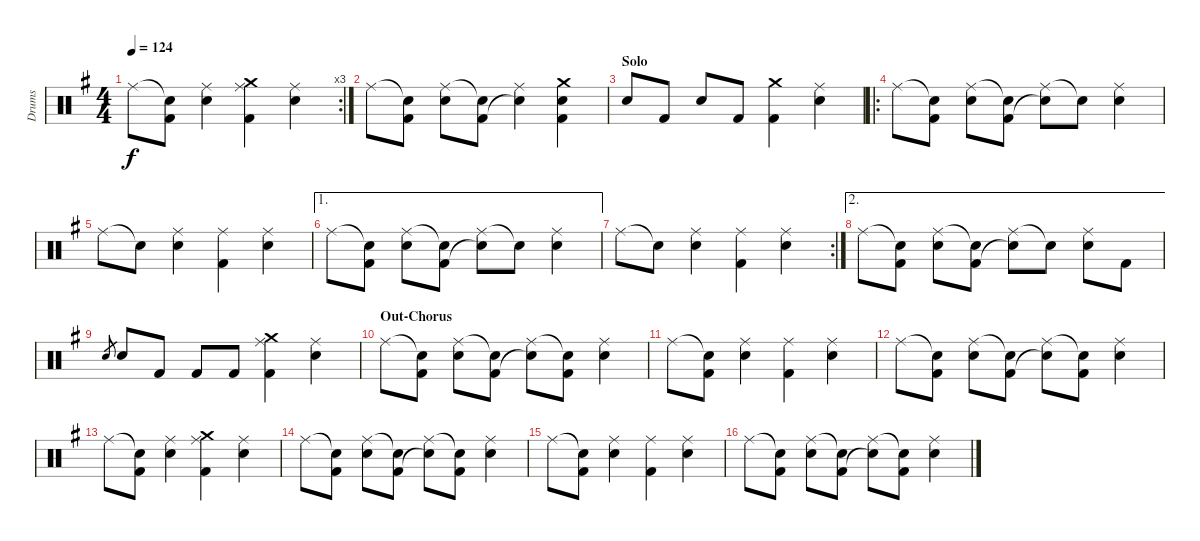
\track ("Drums" "Drums") {instrument percussion}
\staff {score}
\articulation defaults
\rc 3
\ts (4 4)
\tempo 124
\clef neutral
\ks g "Ride (middle)".8{dy f}
("Snare (hit)"{t} "Kick (hit) 2").8 ("Ride (middle)" "Snare (hit) 2").4 ("Ride (middle)" "Crash medium (hit)" "Kick (hit) 2").4 ("Ride (middle)" "Snare (hit) 2").4 |
"Ride (middle)".8 ("Snare (hit)"{t} "Kick (hit) 2").8 ("Ride (middle)" "Snare (hit) 2").8 ("Snare (hit)"{t} "Kick (hit) 2").8 ("Ride (middle)" "Snare (hit)"{t}).4 ("Crash medium (hit)" "Kick (hit) 2" "Snare (hit) 2").4 |
\section ("" "Solo")
"Snare (hit) 2".8 "Kick (hit) 2".8 "Snare (hit) 2".8 "Kick (hit) 2".8 ("Crash medium (hit)" "Kick (hit) 2").4 ("Ride (middle)" "Snare (hit) 2").4 |
\ro "Ride (middle)".8
("Snare (hit)"{t} "Kick (hit) 2").8 ("Ride (middle)" "Snare (hit) 2").8 ("Snare (hit)"{t} "Kick (hit) 2").8 ("Ride (middle)" "Snare (hit)"{t}).8 "Snare (hit)"{t}.8 ("Ride (middle)" "Snare (hit) 2").4 |
"Ride (middle)".8 "Snare (hit)"{t}.8 ("Ride (middle)" "Snare (hit) 2").4 ("Ride (middle)" "Kick (hit) 2").4 ("Ride (middle)" "Snare (hit) 2").4 |
\ae 1 "Ride (middle)".8
("Snare (hit)"{t} "Kick (hit) 2").8 ("Ride (middle)" "Snare (hit) 2").8 ("Snare (hit)"{t} "Kick (hit) 2").8 ("Ride (middle)" "Snare (hit)"{t}).8 "Snare (hit)"{t}.8 ("Ride (middle)" "Snare (hit) 2").4 |
\rc 2 "Ride (middle)".8 "Snare (hit)"{t}.8
("Ride (middle)" "Snare (hit) 2").4 ("Ride (middle)" "Kick (hit) 2").4 ("Ride (middle)" "Snare (hit) 2").4 |
\ae 2 "Ride (middle)".8
("Snare (hit)"{t} "Kick (hit) 2").8 ("Ride (middle)" "Snare (hit) 2").8 ("Snare (hit)"{t} "Kick (hit) 2").8 ("Ride (middle)" "Snare (hit)"{t}).8 "Snare (hit)"{t}.8 ("Ride (middle)" "Snare (hit) 2").8 "Kick (hit) 2".8 |
"Snare (hit) 2".8{gr} "Snare (hit) 2".8 "Kick (hit) 2".8 "Kick (hit) 2".8 "Kick (hit) 2".8 ("Crash medium (hit)" "Ride (middle)" "Kick (hit) 2").4 ("Ride (middle)" "Snare (hit) 2").4 |
\section ("" "Out-Chorus")
"Ride (middle)".8 ("Snare (hit)"{t} "Kick (hit) 2").8 ("Ride (middle)" "Snare (hit) 2").8 ("Snare (hit)"{t} "Kick (hit) 2").8 ("Ride (middle)" "Snare (hit)"{t}).8 ("Snare (hit)"{t} "Kick (hit) 2").8 ("Ride (middle)" "Snare (hit) 2").4 |
"Ride (middle)".8 ("Snare (hit)"{t} "Kick (hit) 2").8 ("Ride (middle)" "Snare (hit) 2").4 ("Ride (middle)" "Kick (hit) 2").4 ("Ride (middle)" "Snare (hit) 2").4 |
"Ride (middle)".8 ("Snare (hit)"{t} "Kick (hit) 2").8 ("Ride (middle)" "Snare (hit) 2").8 ("Snare (hit)"{t} "Kick (hit) 2").8 ("Ride (middle)" "Snare (hit)"{t}).8 ("Snare (hit)"{t} "Kick (hit) 2").8 ("Ride (middle)" "Snare (hit) 2").4 |
"Ride (middle)".8 ("Snare (hit)"{t} "Kick (hit) 2").8 ("Ride (middle)" "Snare (hit) 2").4 ("Ride (middle)" "Crash medium (hit)" "Kick (hit) 2").4 ("Ride (middle)" "Snare (hit) 2").4 |
"Ride (middle)".8 ("Snare (hit)"{t} "Kick (hit) 2").8 ("Ride (middle)" "Snare (hit) 2").8 ("Snare (hit)"{t} "Kick (hit) 2").8 ("Ride (middle)" "Snare (hit)"{t}).8 ("Snare (hit)"{t} "Kick (hit) 2").8 ("Ride (middle)" "Snare (hit) 2").4 |
"Ride (middle)".8 ("Snare (hit)"{t} "Kick (hit) 2").8 ("Ride (middle)" "Snare (hit) 2").4 ("Ride (middle)" "Kick (hit) 2").4 ("Ride (middle)" "Snare (hit) 2").4 |
"Ride (middle)".8 ("Snare (hit)"{t} "Kick (hit) 2").8 ("Ride (middle)" "Snare (hit) 2").8 ("Snare (hit)"{t} "Kick (hit) 2").8 ("Ride (middle)" "Snare (hit)"{t}).8 ("Snare (hit)"{t} "Kick (hit) 2").8 ("Ride (middle)" "Snare (hit) 2").4
